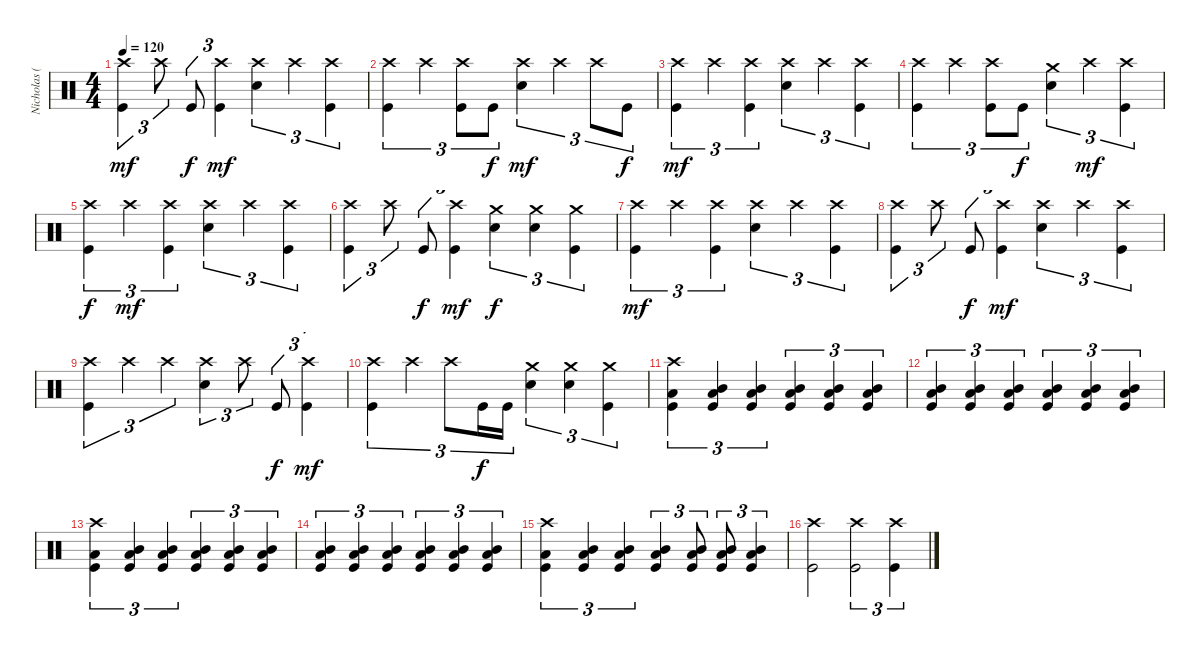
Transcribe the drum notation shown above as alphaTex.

\track ("Nicholas (Drums)" "Nicholas (") {instrument percussion}
\staff {score}
\articulation defaults
\ts (4 4)
\tempo 120
\clef neutral
\ks c
("Crash high (hit)" "Kick (hit)").4{tu (3 2) dy mf} "Crash high (hit)".8{tu (3 2)} "Kick (hit)".8{tu (3 2) dy f} ("Crash high (hit)" "Kick (hit)").4{tu (3 2) dy mf} ("Crash high (hit)" "Electric Snare (hit)").4{tu (3 2)} "Crash high (hit)".4{tu (3 2)} ("Crash high (hit)" "Kick (hit)").4{tu (3 2)} |
("Crash high (hit)" "Kick (hit)").4{tu (3 2)} "Crash high (hit)".4{tu (3 2)} ("Crash high (hit)" "Kick (hit)").8{tu (3 2)} "Kick (hit)".8{tu (3 2) dy f} ("Crash high (hit)" "Electric Snare (hit)").4{tu (3 2) dy mf} "Crash high (hit)".4{tu (3 2)} "Crash high (hit)".8{tu (3 2)} "Kick (hit)".8{tu (3 2) dy f} |
("Crash high (hit)" "Kick (hit)").4{tu (3 2) dy mf} "Crash high (hit)".4{tu (3 2)} ("Crash high (hit)" "Kick (hit)").4{tu (3 2)} ("Crash high (hit)" "Electric Snare (hit)").4{tu (3 2)} "Crash high (hit)".4{tu (3 2)} ("Crash high (hit)" "Kick (hit)").4{tu (3 2)} |
("Crash high (hit)" "Kick (hit)").4{tu (3 2)} "Crash high (hit)".4{tu (3 2)} ("Crash high (hit)" "Kick (hit)").8{tu (3 2)} "Kick (hit)".8{tu (3 2) dy f} ("Crash medium (hit)" "Electric Snare (hit)").4{tu (3 2)} "Crash high (hit)".4{tu (3 2) dy mf} ("Crash high (hit)" "Kick (hit)").4{tu (3 2)} |
("Crash high (hit)" "Kick (hit)").4{tu (3 2) dy f} "Crash high (hit)".4{tu (3 2) dy mf} ("Crash high (hit)" "Kick (hit)").4{tu (3 2)} ("Crash high (hit)" "Electric Snare (hit)").4{tu (3 2)} "Crash high (hit)".4{tu (3 2)} ("Crash high (hit)" "Kick (hit)").4{tu (3 2)} |
("Crash high (hit)" "Kick (hit)").4{tu (3 2)} "Crash high (hit)".8{tu (3 2)} "Kick (hit)".8{tu (3 2) dy f} ("Crash high (hit)" "Kick (hit)").4{tu (3 2) dy mf} ("Crash medium (hit)" "Electric Snare (hit)").4{tu (3 2) dy f} ("Crash medium (hit)" "Electric Snare (hit)").4{tu (3 2)} ("Crash medium (hit)" "Kick (hit)").4{tu (3 2)} |
("Crash high (hit)" "Kick (hit)").4{tu (3 2) dy mf} "Crash high (hit)".4{tu (3 2)} ("Crash high (hit)" "Kick (hit)").4{tu (3 2)} ("Crash high (hit)" "Electric Snare (hit)").4{tu (3 2)} "Crash high (hit)".4{tu (3 2)} ("Crash high (hit)" "Kick (hit)").4{tu (3 2)} |
("Crash high (hit)" "Kick (hit)").4{tu (3 2)} "Crash high (hit)".8{tu (3 2)} "Kick (hit)".8{tu (3 2) dy f} ("Crash high (hit)" "Kick (hit)").4{tu (3 2) dy mf} ("Crash high (hit)" "Electric Snare (hit)").4{tu (3 2)} "Crash high (hit)".4{tu (3 2)} ("Crash high (hit)" "Kick (hit)").4{tu (3 2)} |
("Crash high (hit)" "Kick (hit)").4{tu (3 2)} "Crash high (hit)".4{tu (3 2)} "Crash high (hit)".4{tu (3 2)} ("Crash high (hit)" "Electric Snare (hit)").4{tu (3 2)} "Crash high (hit)".8{tu (3 2)} "Kick (hit)".8{tu (3 2) dy f} ("Crash high (hit)" "Kick (hit)").4{tu (3 2) dy mf} |
("Crash high (hit)" "Kick (hit)").4{tu (3 2)} "Crash high (hit)".4{tu (3 2)} "Crash high (hit)".8{tu (3 2)} "Kick (hit)".16{tu (3 2) dy f} "Kick (hit)".16{tu (3 2)} ("Crash medium (hit)" "Electric Snare (hit)").4{tu (3 2)} ("Crash medium (hit)" "Electric Snare (hit)").4{tu (3 2)} ("Crash medium (hit)" "Kick (hit)").4{tu (3 2)} |
("Crash high (hit)" "Low Tom (hit)" "Kick (hit)").4{tu (3 2)} ("Mid Tom (hit)" "Low Tom (hit)" "Kick (hit)").4{tu (3 2)} ("Mid Tom (hit)" "Low Tom (hit)" "Kick (hit)").4{tu (3 2)} ("Mid Tom (hit)" "Low Tom (hit)" "Kick (hit)").4{tu (3 2)} ("Mid Tom (hit)" "Low Tom (hit)" "Kick (hit)").4{tu (3 2)} ("Mid Tom (hit)" "Low Tom (hit)" "Kick (hit)").4{tu (3 2)} |
("Mid Tom (hit)" "Low Tom (hit)" "Kick (hit)").4{tu (3 2)} ("Mid Tom (hit)" "Low Tom (hit)" "Kick (hit)").4{tu (3 2)} ("Mid Tom (hit)" "Low Tom (hit)" "Kick (hit)").4{tu (3 2)} ("Mid Tom (hit)" "Low Tom (hit)" "Kick (hit)").4{tu (3 2)} ("Mid Tom (hit)" "Low Tom (hit)" "Kick (hit)").4{tu (3 2)} ("Mid Tom (hit)" "Low Tom (hit)" "Kick (hit)").4{tu (3 2)} |
("Crash high (hit)" "Low Tom (hit)" "Kick (hit)").4{tu (3 2)} ("Mid Tom (hit)" "Low Tom (hit)" "Kick (hit)").4{tu (3 2)} ("Mid Tom (hit)" "Low Tom (hit)" "Kick (hit)").4{tu (3 2)} ("Mid Tom (hit)" "Low Tom (hit)" "Kick (hit)").4{tu (3 2)} ("Mid Tom (hit)" "Low Tom (hit)" "Kick (hit)").4{tu (3 2)} ("Mid Tom (hit)" "Low Tom (hit)" "Kick (hit)").4{tu (3 2)} |
("Mid Tom (hit)" "Low Tom (hit)" "Kick (hit)").4{tu (3 2)} ("Mid Tom (hit)" "Low Tom (hit)" "Kick (hit)").4{tu (3 2)} ("Mid Tom (hit)" "Low Tom (hit)" "Kick (hit)").4{tu (3 2)} ("Mid Tom (hit)" "Low Tom (hit)" "Kick (hit)").4{tu (3 2)} ("Mid Tom (hit)" "Low Tom (hit)" "Kick (hit)").4{tu (3 2)} ("Mid Tom (hit)" "Low Tom (hit)" "Kick (hit)").4{tu (3 2)} |
("Crash high (hit)" "Low Tom (hit)" "Kick (hit)").4{tu (3 2)} ("Mid Tom (hit)" "Low Tom (hit)" "Kick (hit)").4{tu (3 2)} ("Mid Tom (hit)" "Low Tom (hit)" "Kick (hit)").4{tu (3 2)} ("Mid Tom (hit)" "Low Tom (hit)" "Kick (hit)").4{tu (3 2)} ("Mid Tom (hit)" "Low Tom (hit)" "Kick (hit)").8{tu (3 2)} ("Mid Tom (hit)" "Low Tom (hit)" "Kick (hit)").8{tu (3 2)} ("Mid Tom (hit)" "Low Tom (hit)" "Kick (hit)").4{tu (3 2)} |
("Crash high (hit)" "Kick (hit)").2 ("Crash high (hit)" "Kick (hit)").2{tu (3 2)} ("Crash high (hit)" "Kick (hit)").4{tu (3 2)}
